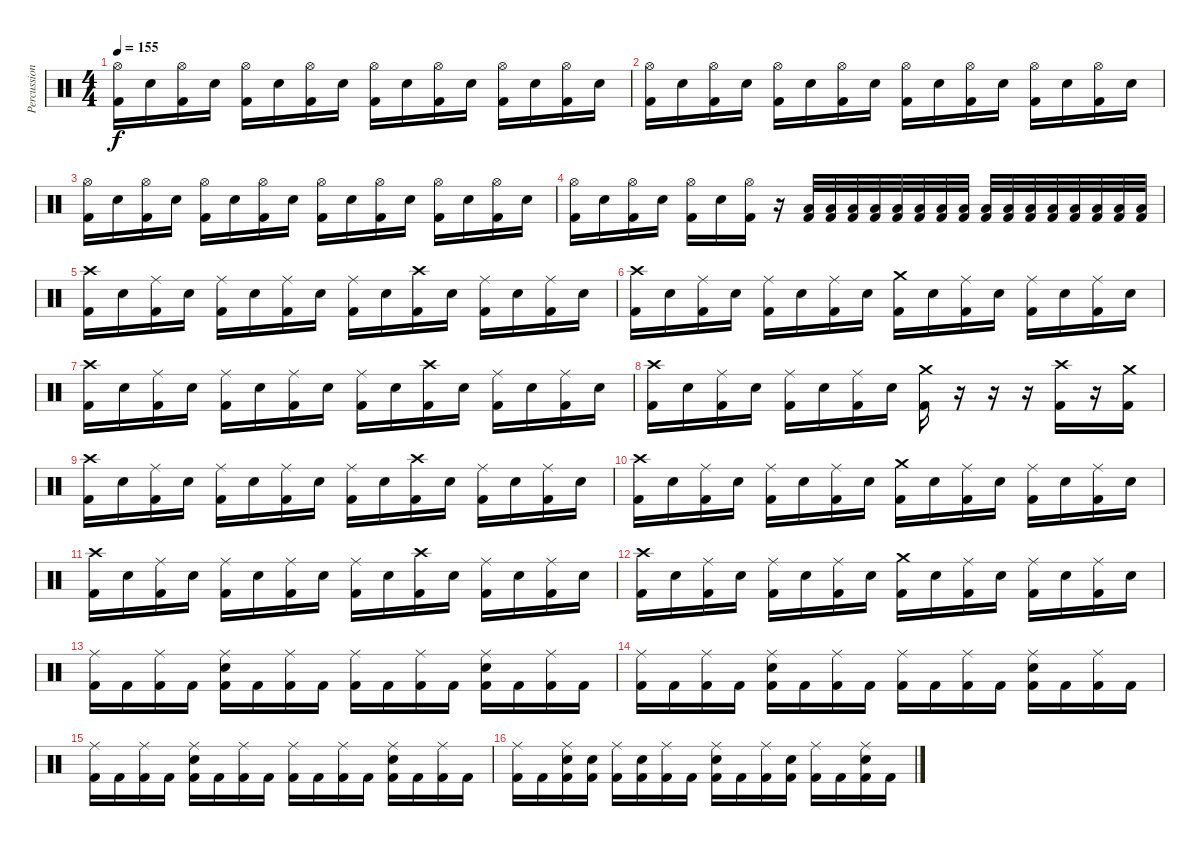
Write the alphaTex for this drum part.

\track ("Percussion" "Percussion") {instrument percussion}
\staff {score}
\articulation defaults
\ts (4 4)
\tempo 155
\clef neutral
\ks c
("Kick (hit) 2" "Hi-Hat (open)").16{dy f} "Snare (hit) 2".16 ("Kick (hit) 2" "Hi-Hat (open)").16 "Snare (hit) 2".16 ("Kick (hit) 2" "Hi-Hat (open)").16 "Snare (hit) 2".16 ("Kick (hit) 2" "Hi-Hat (open)").16 "Snare (hit) 2".16 ("Kick (hit) 2" "Hi-Hat (open)").16 "Snare (hit) 2".16 ("Kick (hit) 2" "Hi-Hat (open)").16 "Snare (hit) 2".16 ("Kick (hit) 2" "Hi-Hat (open)").16 "Snare (hit) 2".16 ("Kick (hit) 2" "Hi-Hat (open)").16 "Snare (hit) 2".16 |
("Kick (hit) 2" "Hi-Hat (open)").16 "Snare (hit) 2".16 ("Kick (hit) 2" "Hi-Hat (open)").16 "Snare (hit) 2".16 ("Kick (hit) 2" "Hi-Hat (open)").16 "Snare (hit) 2".16 ("Kick (hit) 2" "Hi-Hat (open)").16 "Snare (hit) 2".16 ("Kick (hit) 2" "Hi-Hat (open)").16 "Snare (hit) 2".16 ("Kick (hit) 2" "Hi-Hat (open)").16 "Snare (hit) 2".16 ("Kick (hit) 2" "Hi-Hat (open)").16 "Snare (hit) 2".16 ("Kick (hit) 2" "Hi-Hat (open)").16 "Snare (hit) 2".16 |
("Kick (hit) 2" "Hi-Hat (open)").16 "Snare (hit) 2".16 ("Kick (hit) 2" "Hi-Hat (open)").16 "Snare (hit) 2".16 ("Kick (hit) 2" "Hi-Hat (open)").16 "Snare (hit) 2".16 ("Kick (hit) 2" "Hi-Hat (open)").16 "Snare (hit) 2".16 ("Kick (hit) 2" "Hi-Hat (open)").16 "Snare (hit) 2".16 ("Kick (hit) 2" "Hi-Hat (open)").16 "Snare (hit) 2".16 ("Kick (hit) 2" "Hi-Hat (open)").16 "Snare (hit) 2".16 ("Kick (hit) 2" "Hi-Hat (open)").16 "Snare (hit) 2".16 |
("Kick (hit) 2" "Hi-Hat (open)").16 "Snare (hit) 2".16 ("Kick (hit) 2" "Hi-Hat (open)").16 "Snare (hit) 2".16 ("Kick (hit) 2" "Hi-Hat (open)").16 "Snare (hit) 2".16 ("Kick (hit) 2" "Hi-Hat (open)").16 r.16 ("Low Tom (hit)" "Kick (hit) 2").32 ("Low Tom (hit)" "Kick (hit) 2").32 ("Low Tom (hit)" "Kick (hit) 2").32 ("Low Tom (hit)" "Kick (hit) 2").32 ("Low Tom (hit)" "Kick (hit) 2").32 ("Low Tom (hit)" "Kick (hit) 2").32 ("Low Tom (hit)" "Kick (hit) 2").32 ("Low Tom (hit)" "Kick (hit) 2").32 ("Low Floor Tom (hit)" "Kick (hit) 2").32 ("Low Floor Tom (hit)" "Kick (hit) 2").32 ("Low Floor Tom (hit)" "Kick (hit) 2").32 ("Low Floor Tom (hit)" "Kick (hit) 2").32 ("Low Floor Tom (hit)" "Kick (hit) 2").32 ("Low Floor Tom (hit)" "Kick (hit) 2").32 ("Low Floor Tom (hit)" "Kick (hit) 2").32 ("Low Floor Tom (hit)" "Kick (hit) 2").32 |
("Kick (hit) 2" "Crash high (hit)").16 "Snare (hit) 2".16 ("Kick (hit) 2" "Ride (middle)").16 "Snare (hit) 2".16 ("Kick (hit) 2" "Ride (middle)").16 "Snare (hit) 2".16 ("Kick (hit) 2" "Ride (middle)").16 "Snare (hit) 2".16 ("Kick (hit) 2" "Ride (middle)").16 "Snare (hit) 2".16 ("Kick (hit) 2" "Crash high (hit)").16 "Snare (hit) 2".16 ("Kick (hit) 2" "Ride (middle)").16 "Snare (hit) 2".16 ("Kick (hit) 2" "Ride (middle)").16 "Snare (hit) 2".16 |
("Kick (hit) 2" "Crash high (hit)").16 "Snare (hit) 2".16 ("Kick (hit) 2" "Ride (middle)").16 "Snare (hit) 2".16 ("Kick (hit) 2" "Ride (middle)").16 "Snare (hit) 2".16 ("Kick (hit) 2" "Ride (middle)").16 "Snare (hit) 2".16 ("Kick (hit) 2" "Crash medium (hit)").16 "Snare (hit) 2".16 ("Kick (hit) 2" "Ride (middle)").16 "Snare (hit) 2".16 ("Kick (hit) 2" "Ride (middle)").16 "Snare (hit) 2".16 ("Kick (hit) 2" "Ride (middle)").16 "Snare (hit) 2".16 |
("Kick (hit) 2" "Crash high (hit)").16 "Snare (hit) 2".16 ("Kick (hit) 2" "Ride (middle)").16 "Snare (hit) 2".16 ("Kick (hit) 2" "Ride (middle)").16 "Snare (hit) 2".16 ("Kick (hit) 2" "Ride (middle)").16 "Snare (hit) 2".16 ("Kick (hit) 2" "Ride (middle)").16 "Snare (hit) 2".16 ("Kick (hit) 2" "Crash high (hit)").16 "Snare (hit) 2".16 ("Kick (hit) 2" "Ride (middle)").16 "Snare (hit) 2".16 ("Kick (hit) 2" "Ride (middle)").16 "Snare (hit) 2".16 |
("Kick (hit) 2" "Crash high (hit)").16 "Snare (hit) 2".16 ("Kick (hit) 2" "Ride (middle)").16 "Snare (hit) 2".16 ("Kick (hit) 2" "Ride (middle)").16 "Snare (hit) 2".16 ("Kick (hit) 2" "Ride (middle)").16 "Snare (hit) 2".16 ("Kick (hit) 2" "Crash medium (hit)").16 r.16 r.16 r.16 ("Kick (hit) 2" "Crash high (hit)").16 r.16 ("Kick (hit) 2" "Crash medium (hit)").16 |
("Kick (hit) 2" "Crash high (hit)").16 "Snare (hit) 2".16 ("Kick (hit) 2" "Ride (middle)").16 "Snare (hit) 2".16 ("Kick (hit) 2" "Ride (middle)").16 "Snare (hit) 2".16 ("Kick (hit) 2" "Ride (middle)").16 "Snare (hit) 2".16 ("Kick (hit) 2" "Ride (middle)").16 "Snare (hit) 2".16 ("Kick (hit) 2" "Crash high (hit)").16 "Snare (hit) 2".16 ("Kick (hit) 2" "Ride (middle)").16 "Snare (hit) 2".16 ("Kick (hit) 2" "Ride (middle)").16 "Snare (hit) 2".16 |
("Kick (hit) 2" "Crash high (hit)").16 "Snare (hit) 2".16 ("Kick (hit) 2" "Ride (middle)").16 "Snare (hit) 2".16 ("Kick (hit) 2" "Ride (middle)").16 "Snare (hit) 2".16 ("Kick (hit) 2" "Ride (middle)").16 "Snare (hit) 2".16 ("Kick (hit) 2" "Crash medium (hit)").16 "Snare (hit) 2".16 ("Kick (hit) 2" "Ride (middle)").16 "Snare (hit) 2".16 ("Kick (hit) 2" "Ride (middle)").16 "Snare (hit) 2".16 ("Kick (hit) 2" "Ride (middle)").16 "Snare (hit) 2".16 |
("Kick (hit) 2" "Crash high (hit)").16 "Snare (hit) 2".16 ("Kick (hit) 2" "Ride (middle)").16 "Snare (hit) 2".16 ("Kick (hit) 2" "Ride (middle)").16 "Snare (hit) 2".16 ("Kick (hit) 2" "Ride (middle)").16 "Snare (hit) 2".16 ("Kick (hit) 2" "Ride (middle)").16 "Snare (hit) 2".16 ("Kick (hit) 2" "Crash high (hit)").16 "Snare (hit) 2".16 ("Kick (hit) 2" "Ride (middle)").16 "Snare (hit) 2".16 ("Kick (hit) 2" "Ride (middle)").16 "Snare (hit) 2".16 |
("Kick (hit) 2" "Crash high (hit)").16 "Snare (hit) 2".16 ("Kick (hit) 2" "Ride (middle)").16 "Snare (hit) 2".16 ("Kick (hit) 2" "Ride (middle)").16 "Snare (hit) 2".16 ("Kick (hit) 2" "Ride (middle)").16 "Snare (hit) 2".16 ("Kick (hit) 2" "Crash medium (hit)").16 "Snare (hit) 2".16 ("Kick (hit) 2" "Ride (middle)").16 "Snare (hit) 2".16 ("Kick (hit) 2" "Ride (middle)").16 "Snare (hit) 2".16 ("Kick (hit) 2" "Ride (middle)").16 "Snare (hit) 2".16 |
("Ride (middle)" "Kick (hit) 2").16 "Kick (hit) 2".16 ("Ride (middle)" "Kick (hit) 2").16 "Kick (hit) 2".16 ("Ride (middle)" "Snare (hit) 2" "Kick (hit) 2").16 "Kick (hit) 2".16 ("Ride (middle)" "Kick (hit) 2").16 "Kick (hit) 2".16 ("Ride (middle)" "Kick (hit) 2").16 "Kick (hit) 2".16 ("Ride (middle)" "Kick (hit) 2").16 "Kick (hit) 2".16 ("Ride (middle)" "Snare (hit) 2" "Kick (hit) 2").16 "Kick (hit) 2".16 ("Ride (middle)" "Kick (hit) 2").16 "Kick (hit) 2".16 |
("Ride (middle)" "Kick (hit) 2").16 "Kick (hit) 2".16 ("Ride (middle)" "Kick (hit) 2").16 "Kick (hit) 2".16 ("Ride (middle)" "Snare (hit) 2" "Kick (hit) 2").16 "Kick (hit) 2".16 ("Ride (middle)" "Kick (hit) 2").16 "Kick (hit) 2".16 ("Ride (middle)" "Kick (hit) 2").16 "Kick (hit) 2".16 ("Ride (middle)" "Kick (hit) 2").16 "Kick (hit) 2".16 ("Ride (middle)" "Snare (hit) 2" "Kick (hit) 2").16 "Kick (hit) 2".16 ("Ride (middle)" "Kick (hit) 2").16 "Kick (hit) 2".16 |
("Ride (middle)" "Kick (hit) 2").16 "Kick (hit) 2".16 ("Ride (middle)" "Kick (hit) 2").16 "Kick (hit) 2".16 ("Ride (middle)" "Snare (hit) 2" "Kick (hit) 2").16 "Kick (hit) 2".16 ("Ride (middle)" "Kick (hit) 2").16 "Kick (hit) 2".16 ("Ride (middle)" "Kick (hit) 2").16 "Kick (hit) 2".16 ("Ride (middle)" "Kick (hit) 2").16 "Kick (hit) 2".16 ("Ride (middle)" "Snare (hit) 2" "Kick (hit) 2").16 "Kick (hit) 2".16 ("Ride (middle)" "Kick (hit) 2").16 "Kick (hit) 2".16 |
("Ride (middle)" "Kick (hit) 2").16 "Kick (hit) 2".16 ("Ride (middle)" "Snare (hit) 2" "Kick (hit) 2").16 ("Snare (hit) 2" "Kick (hit) 2").16 ("Ride (middle)" "Kick (hit) 2").16 ("Snare (hit) 2" "Kick (hit) 2").16 ("Ride (middle)" "Kick (hit) 2").16 "Kick (hit) 2".16 ("Ride (middle)" "Snare (hit) 2" "Kick (hit) 2").16 "Kick (hit) 2".16 ("Ride (middle)" "Kick (hit) 2").16 ("Snare (hit) 2" "Kick (hit) 2").16 ("Ride (middle)" "Kick (hit) 2").16 "Kick (hit) 2".16 ("Ride (middle)" "Snare (hit) 2" "Kick (hit) 2").16 "Kick (hit) 2".16
